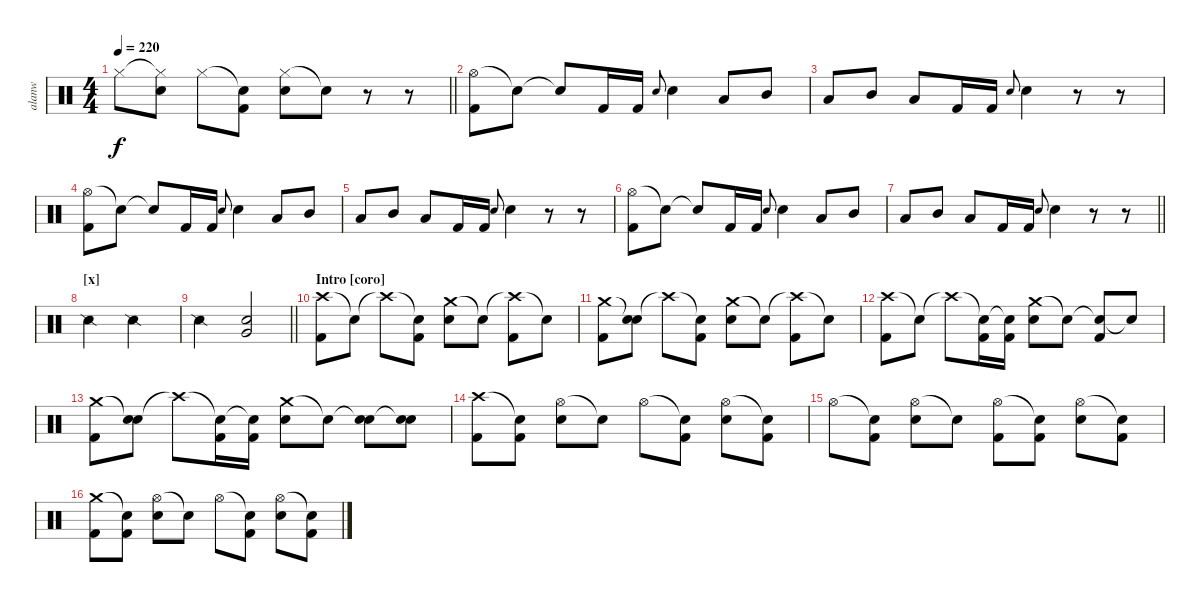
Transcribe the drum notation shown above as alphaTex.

\track ("alanw" "alanw") {instrument percussion}
\staff {score}
\articulation defaults
\ts (4 4)
\tempo 220
\clef neutral
\barLineRight lightlight
\ks c "Hi-Hat (closed)".8{dy f}
("Hi-Hat (closed)"{t} "Electric Snare (hit)").8 "Hi-Hat (closed)".8 ("Snare (hit)"{t} "Kick (hit) 2").8 ("Hi-Hat (closed)" "Electric Snare (hit)").8 "Snare (hit)"{t}.8 r.8 r.8 |
("Hi-Hat (open)" "Kick (hit) 2").8 "Snare (hit)"{t}.8 "Snare (hit)"{t}.8 "Kick (hit) 2".16 "Kick (hit) 2".16 "Electric Snare (hit)".8{gr onbeat} "Electric Snare (hit)".4 "Low Tom (hit)".8 "Mid Tom (hit)".8 |
"Low Tom (hit)".8 "Mid Tom (hit)".8 "Low Tom (hit)".8 "Kick (hit) 2".16 "Kick (hit) 2".16 "Electric Snare (hit)".8{gr onbeat} "Electric Snare (hit)".4 r.8 r.8 |
("Hi-Hat (open)" "Kick (hit) 2").8 "Snare (hit)"{t}.8 "Snare (hit)"{t}.8 "Kick (hit) 2".16 "Kick (hit) 2".16 "Electric Snare (hit)".8{gr onbeat} "Electric Snare (hit)".4 "Low Tom (hit)".8 "Mid Tom (hit)".8 |
"Low Tom (hit)".8 "Mid Tom (hit)".8 "Low Tom (hit)".8 "Kick (hit) 2".16 "Kick (hit) 2".16 "Electric Snare (hit)".8{gr onbeat} "Electric Snare (hit)".4 r.8 r.8 |
("Hi-Hat (open)" "Kick (hit) 2").8 "Snare (hit)"{t}.8 "Snare (hit)"{t}.8 "Kick (hit) 2".16 "Kick (hit) 2".16 "Electric Snare (hit)".8{gr onbeat} "Electric Snare (hit)".4 "Low Tom (hit)".8 "Mid Tom (hit)".8 |
\barLineRight lightlight "Low Tom (hit)".8 "Mid Tom (hit)".8 "Low Tom (hit)".8 "Kick (hit) 2".16 "Kick (hit) 2".16 "Electric Snare (hit)".8{gr onbeat} "Electric Snare (hit)".4
r.8 r.8 |
\section ("" "[x]")
"Snare (side stick) 2".2 "Snare (side stick) 2".2 |
\barLineRight lightlight "Snare (side stick) 2".2
("Electric Snare (hit)" "Very Low Tom (hit)").2 |
\section ("" "Intro [coro]")
("Crash high (hit)" "Kick (hit) 2").8 "Snare (hit)"{t}.8 "Crash high (hit)"{t}.8 ("Snare (hit)"{t} "Kick (hit) 2").8 ("Crash medium (hit)" "Electric Snare (hit)").8 "Snare (hit)"{t}.8 ("Crash high (hit)"{t} "Kick (hit) 2").8 "Snare (hit)"{t}.8 |
("Crash medium (hit)" "Kick (hit) 2").8 ("Snare (hit)"{t} "Electric Snare (hit)").8 "Crash high (hit)"{t}.8 ("Snare (hit)"{t} "Kick (hit) 2").8 ("Crash medium (hit)" "Electric Snare (hit)").8 "Snare (hit)"{t}.8 ("Crash high (hit)"{t} "Kick (hit) 2").8 "Snare (hit)"{t}.8 |
("Crash high (hit)" "Kick (hit) 2").8 "Snare (hit)"{t}.8 "Crash high (hit)"{t}.8 ("Snare (hit)"{t} "Kick (hit) 2").16 ("Snare (hit)"{t} "Kick (hit) 2").16 ("Crash medium (hit)" "Electric Snare (hit)").8 "Snare (hit)"{t}.8 ("Snare (hit)"{t} "Kick (hit) 2").8 "Snare (hit)"{t}.8 |
("Crash medium (hit)" "Kick (hit) 2").8 ("Snare (hit)"{t} "Electric Snare (hit)").8 "Crash high (hit)"{t}.8 ("Snare (hit)"{t} "Kick (hit) 2").16 ("Snare (hit)"{t} "Kick (hit) 2").16 ("Crash medium (hit)" "Electric Snare (hit)").8 "Snare (hit)"{t}.8 ("Snare (hit)"{t} "Electric Snare (hit)").8 ("Snare (hit)"{t} "Electric Snare (hit)").8 |
("Crash high (hit)" "Kick (hit) 2").8 ("Snare (hit)"{t} "Kick (hit) 2").8 ("Hi-Hat (open)" "Electric Snare (hit)").8 "Snare (hit)"{t}.8 "Hi-Hat (open)".8 ("Snare (hit)"{t} "Kick (hit) 2").8 ("Hi-Hat (open)" "Electric Snare (hit)").8 ("Snare (hit)"{t} "Kick (hit) 2").8 |
"Hi-Hat (open)".8 ("Snare (hit)"{t} "Kick (hit) 2").8 ("Hi-Hat (open)" "Electric Snare (hit)").8 "Snare (hit)"{t}.8 ("Hi-Hat (open)" "Kick (hit) 2").8 ("Snare (hit)"{t} "Kick (hit) 2").8 ("Hi-Hat (open)" "Electric Snare (hit)").8 ("Snare (hit)"{t} "Kick (hit) 2").8 |
("Crash medium (hit)" "Kick (hit) 2").8 ("Snare (hit)"{t} "Kick (hit) 2").8 ("Hi-Hat (open)" "Electric Snare (hit)").8 "Snare (hit)"{t}.8 "Hi-Hat (open)".8 ("Snare (hit)"{t} "Kick (hit) 2").8 ("Hi-Hat (open)" "Electric Snare (hit)").8 ("Snare (hit)"{t} "Kick (hit) 2").8
